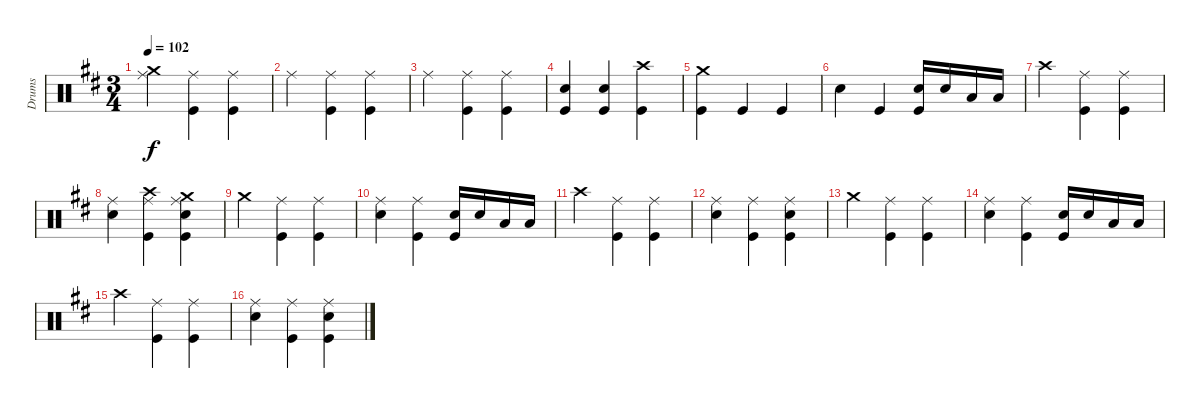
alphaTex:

\track ("Drums" "Drums") {instrument percussion}
\staff {score}
\articulation defaults
\ts (3 4)
\tempo 102
\clef neutral
\ks d
("Crash medium (hit)" "Ride (middle)").4{dy f} ("Ride (middle)" "Kick (hit)").4 ("Ride (middle)" "Kick (hit)").4 |
"Ride (middle)".4 ("Ride (middle)" "Kick (hit)").4 ("Ride (middle)" "Kick (hit)").4 |
"Ride (middle)".4 ("Ride (middle)" "Kick (hit)").4 ("Ride (middle)" "Kick (hit)").4 |
("Snare (hit) 2" "Kick (hit)").4 ("Snare (hit) 2" "Kick (hit)").4 ("Crash high (hit)" "Kick (hit)").4 |
("Crash medium (hit)" "Kick (hit)").4 "Kick (hit)".4 "Kick (hit)".4 |
"Snare (hit) 2".4 "Kick (hit)".4 ("Snare (hit) 2" "Kick (hit)").16 "Snare (hit) 2".16 "Low Tom (hit)".16 "Low Tom (hit)".16 |
"Crash high (hit)".4 ("Ride (middle)" "Kick (hit)").4 ("Ride (middle)" "Kick (hit)").4 |
("Ride (middle)" "Snare (hit) 2").4 ("Crash high (hit)" "Ride (middle)" "Kick (hit)").4 ("Crash medium (hit)" "Ride (middle)" "Snare (hit) 2" "Kick (hit)").4 |
"Crash medium (hit)".4 ("Ride (middle)" "Kick (hit)").4 ("Ride (middle)" "Kick (hit)").4 |
("Ride (middle)" "Snare (hit) 2").4 ("Ride (middle)" "Kick (hit)").4 ("Snare (hit) 2" "Kick (hit)").16 "Snare (hit) 2".16 "Low Tom (hit)".16 "Low Tom (hit)".16 |
"Crash high (hit)".4 ("Ride (middle)" "Kick (hit)").4 ("Ride (middle)" "Kick (hit)").4 |
("Ride (middle)" "Snare (hit) 2").4 ("Ride (middle)" "Kick (hit)").4 ("Ride (middle)" "Snare (hit) 2" "Kick (hit)").4 |
"Crash medium (hit)".4 ("Ride (middle)" "Kick (hit)").4 ("Ride (middle)" "Kick (hit)").4 |
("Ride (middle)" "Snare (hit) 2").4 ("Ride (middle)" "Kick (hit)").4 ("Snare (hit) 2" "Kick (hit)").16 "Snare (hit) 2".16 "Low Tom (hit)".16 "Low Tom (hit)".16 |
"Crash high (hit)".4 ("Ride (middle)" "Kick (hit)").4 ("Ride (middle)" "Kick (hit)").4 |
("Ride (middle)" "Snare (hit) 2").4 ("Ride (middle)" "Kick (hit)").4 ("Ride (middle)" "Snare (hit) 2" "Kick (hit)").4
